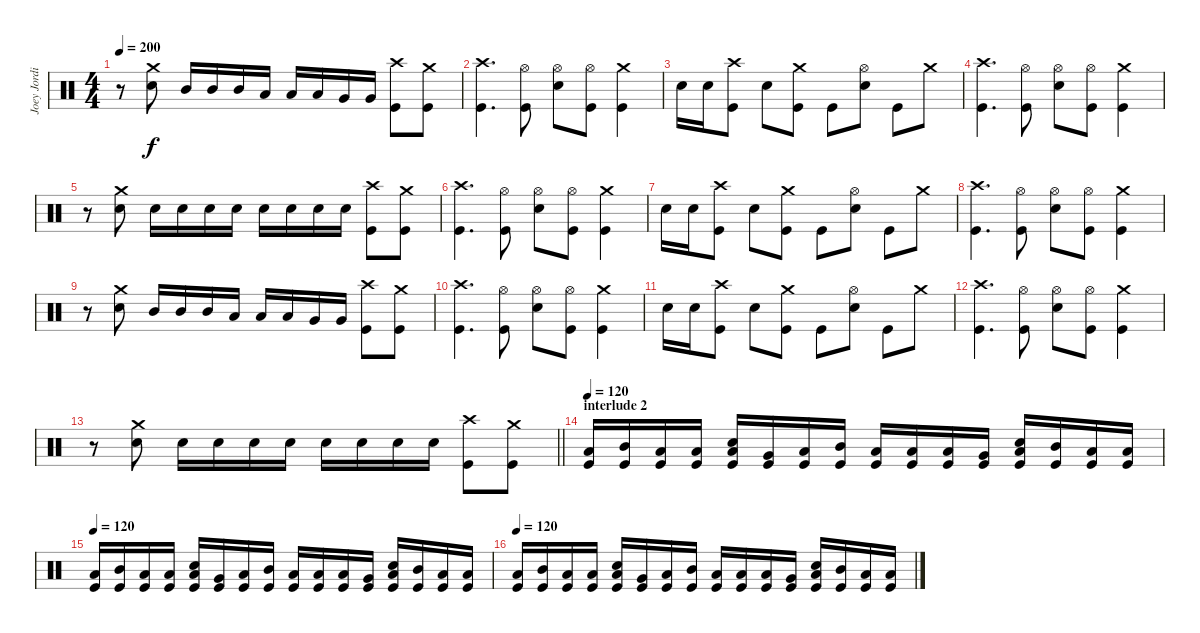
\track ("Joey Jordison" "Joey Jordi") {instrument percussion}
\staff {score}
\articulation defaults
\ts (4 4)
\tempo 200
\clef neutral
\ks c
r.8{dy f} ("Crash medium (hit)" "Electric Snare (hit)").8 "Mid Tom (hit)".16 "Mid Tom (hit)".16 "Mid Tom (hit)".16 "Low Tom (hit)".16 "Low Tom (hit)".16 "Low Tom (hit)".16 "Very Low Tom (hit)".16 "Very Low Tom (hit)".16 ("Crash high (hit)" "Kick (hit)").8 ("Crash medium (hit)" "Kick (hit)").8 |
("Crash high (hit)" "Kick (hit)").4{d} ("Hi-Hat (open)" "Kick (hit)").8 ("Hi-Hat (open)" "Electric Snare (hit)").8 ("Hi-Hat (open)" "Kick (hit)").8 ("Crash medium (hit)" "Kick (hit)").4 |
"Electric Snare (hit)".16 "Electric Snare (hit)".16 ("Crash high (hit)" "Kick (hit)").8 "Electric Snare (hit)".8 ("Crash medium (hit)" "Kick (hit)").8 "Kick (hit)".8 ("Hi-Hat (open)" "Electric Snare (hit)").8 "Kick (hit)".8 "Crash medium (hit)".8 |
("Crash high (hit)" "Kick (hit)").4{d} ("Hi-Hat (open)" "Kick (hit)").8 ("Hi-Hat (open)" "Electric Snare (hit)").8 ("Hi-Hat (open)" "Kick (hit)").8 ("Crash medium (hit)" "Kick (hit)").4 |
r.8 ("Crash medium (hit)" "Electric Snare (hit)").8 "Electric Snare (hit)".16 "Electric Snare (hit)".16 "Electric Snare (hit)".16 "Electric Snare (hit)".16 "Electric Snare (hit)".16 "Electric Snare (hit)".16 "Electric Snare (hit)".16 "Electric Snare (hit)".16 ("Crash high (hit)" "Kick (hit)").8 ("Crash medium (hit)" "Kick (hit)").8 |
("Crash high (hit)" "Kick (hit)").4{d} ("Hi-Hat (open)" "Kick (hit)").8 ("Hi-Hat (open)" "Electric Snare (hit)").8 ("Hi-Hat (open)" "Kick (hit)").8 ("Crash medium (hit)" "Kick (hit)").4 |
"Electric Snare (hit)".16 "Electric Snare (hit)".16 ("Crash high (hit)" "Kick (hit)").8 "Electric Snare (hit)".8 ("Crash medium (hit)" "Kick (hit)").8 "Kick (hit)".8 ("Hi-Hat (open)" "Electric Snare (hit)").8 "Kick (hit)".8 "Crash medium (hit)".8 |
("Crash high (hit)" "Kick (hit)").4{d} ("Hi-Hat (open)" "Kick (hit)").8 ("Hi-Hat (open)" "Electric Snare (hit)").8 ("Hi-Hat (open)" "Kick (hit)").8 ("Crash medium (hit)" "Kick (hit)").4 |
r.8 ("Crash medium (hit)" "Electric Snare (hit)").8 "Mid Tom (hit)".16 "Mid Tom (hit)".16 "Mid Tom (hit)".16 "Low Tom (hit)".16 "Low Tom (hit)".16 "Low Tom (hit)".16 "Very Low Tom (hit)".16 "Very Low Tom (hit)".16 ("Crash high (hit)" "Kick (hit)").8 ("Crash medium (hit)" "Kick (hit)").8 |
("Crash high (hit)" "Kick (hit)").4{d} ("Hi-Hat (open)" "Kick (hit)").8 ("Hi-Hat (open)" "Electric Snare (hit)").8 ("Hi-Hat (open)" "Kick (hit)").8 ("Crash medium (hit)" "Kick (hit)").4 |
"Electric Snare (hit)".16 "Electric Snare (hit)".16 ("Crash high (hit)" "Kick (hit)").8 "Electric Snare (hit)".8 ("Crash medium (hit)" "Kick (hit)").8 "Kick (hit)".8 ("Hi-Hat (open)" "Electric Snare (hit)").8 "Kick (hit)".8 "Crash medium (hit)".8 |
("Crash high (hit)" "Kick (hit)").4{d} ("Hi-Hat (open)" "Kick (hit)").8 ("Hi-Hat (open)" "Electric Snare (hit)").8 ("Hi-Hat (open)" "Kick (hit)").8 ("Crash medium (hit)" "Kick (hit)").4 |
\barLineRight lightlight
r.8 ("Crash medium (hit)" "Electric Snare (hit)").8 "Electric Snare (hit)".16 "Electric Snare (hit)".16 "Electric Snare (hit)".16 "Electric Snare (hit)".16 "Electric Snare (hit)".16 "Electric Snare (hit)".16 "Electric Snare (hit)".16 "Electric Snare (hit)".16 ("Crash high (hit)" "Kick (hit)").8 ("Crash medium (hit)" "Kick (hit)").8 |
\section ("" "interlude 2")
\tempo 120
("Low Floor Tom (hit)" "Kick (hit)").16 ("Mid Tom (hit)" "Kick (hit)").16 ("Low Floor Tom (hit)" "Kick (hit)").16 ("Low Tom (hit)" "Kick (hit)").16 ("Low Floor Tom (hit)" "Electric Snare (hit)" "Kick (hit)").16 ("Very Low Tom (hit)" "Kick (hit)").16 ("Low Floor Tom (hit)" "Kick (hit)").16 ("Mid Tom (hit)" "Kick (hit)").16 ("Low Floor Tom (hit)" "Kick (hit)").16 ("Low Tom (hit)" "Kick (hit)").16 ("Low Floor Tom (hit)" "Kick (hit)").16 ("Very Low Tom (hit)" "Kick (hit)").16 ("Low Floor Tom (hit)" "Electric Snare (hit)" "Kick (hit)").16 ("Mid Tom (hit)" "Kick (hit)").16 ("Low Floor Tom (hit)" "Kick (hit)").16 ("Low Tom (hit)" "Kick (hit)").16 |
\tempo 120
("Low Floor Tom (hit)" "Kick (hit)").16 ("Mid Tom (hit)" "Kick (hit)").16 ("Low Floor Tom (hit)" "Kick (hit)").16 ("Low Tom (hit)" "Kick (hit)").16 ("Low Floor Tom (hit)" "Electric Snare (hit)" "Kick (hit)").16 ("Very Low Tom (hit)" "Kick (hit)").16 ("Low Floor Tom (hit)" "Kick (hit)").16 ("Mid Tom (hit)" "Kick (hit)").16 ("Low Floor Tom (hit)" "Kick (hit)").16 ("Low Tom (hit)" "Kick (hit)").16 ("Low Floor Tom (hit)" "Kick (hit)").16 ("Very Low Tom (hit)" "Kick (hit)").16 ("Low Floor Tom (hit)" "Electric Snare (hit)" "Kick (hit)").16 ("Mid Tom (hit)" "Kick (hit)").16 ("Low Floor Tom (hit)" "Kick (hit)").16 ("Low Tom (hit)" "Kick (hit)").16 |
\tempo 120
("Low Floor Tom (hit)" "Kick (hit)").16 ("Mid Tom (hit)" "Kick (hit)").16 ("Low Floor Tom (hit)" "Kick (hit)").16 ("Low Tom (hit)" "Kick (hit)").16 ("Low Floor Tom (hit)" "Electric Snare (hit)" "Kick (hit)").16 ("Very Low Tom (hit)" "Kick (hit)").16 ("Low Floor Tom (hit)" "Kick (hit)").16 ("Mid Tom (hit)" "Kick (hit)").16 ("Low Floor Tom (hit)" "Kick (hit)").16 ("Low Tom (hit)" "Kick (hit)").16 ("Low Floor Tom (hit)" "Kick (hit)").16 ("Very Low Tom (hit)" "Kick (hit)").16 ("Low Floor Tom (hit)" "Electric Snare (hit)" "Kick (hit)").16 ("Mid Tom (hit)" "Kick (hit)").16 ("Low Floor Tom (hit)" "Kick (hit)").16 ("Low Tom (hit)" "Kick (hit)").16
